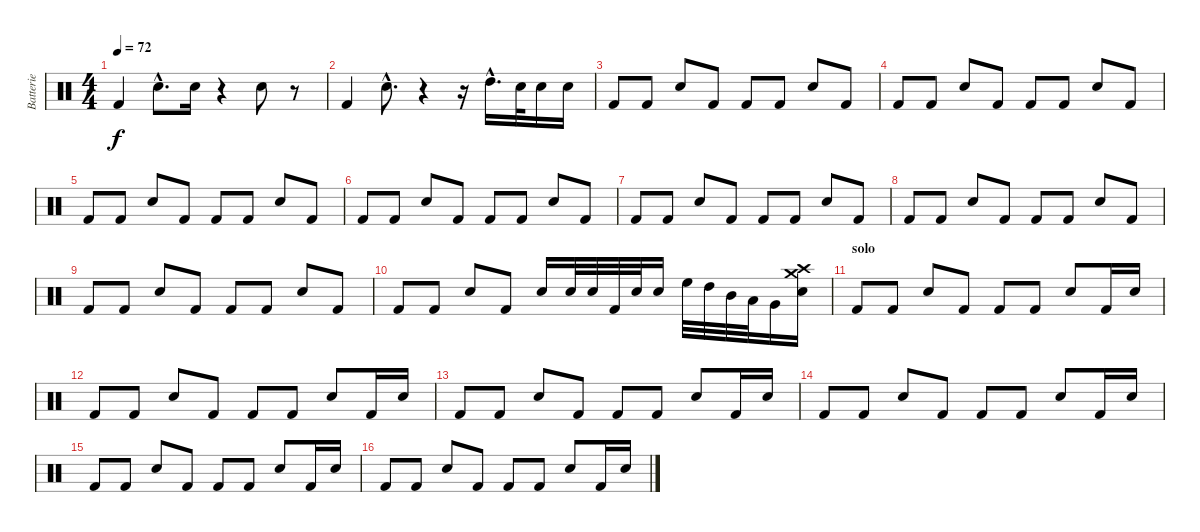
\track ("Batterie" "Batterie") {instrument percussion}
\staff {score}
\articulation defaults
\ts (4 4)
\tempo 72
\clef neutral
\ks c "Kick (hit) 2".4{dy f} "Electric Snare (hit)"{hac}.8{d} "Electric Snare (hit)".16
r.4 "Electric Snare (hit)".8 r.8 |
"Kick (hit) 2".4 "Electric Snare (hit)"{hac}.8{d} r.4 r.16 "High Tom (hit)"{hac}.16{d} "Electric Snare (hit)".32 "Electric Snare (hit)".16 "Electric Snare (hit)".16 |
"Kick (hit) 2".8 "Kick (hit) 2".8 "Electric Snare (hit)".8 "Kick (hit) 2".8 "Kick (hit) 2".8 "Kick (hit) 2".8 "Electric Snare (hit)".8 "Kick (hit) 2".8 |
"Kick (hit) 2".8 "Kick (hit) 2".8 "Electric Snare (hit)".8 "Kick (hit) 2".8 "Kick (hit) 2".8 "Kick (hit) 2".8 "Electric Snare (hit)".8 "Kick (hit) 2".8 |
"Kick (hit) 2".8 "Kick (hit) 2".8 "Electric Snare (hit)".8 "Kick (hit) 2".8 "Kick (hit) 2".8 "Kick (hit) 2".8 "Electric Snare (hit)".8 "Kick (hit) 2".8 |
"Kick (hit) 2".8 "Kick (hit) 2".8 "Electric Snare (hit)".8 "Kick (hit) 2".8 "Kick (hit) 2".8 "Kick (hit) 2".8 "Electric Snare (hit)".8 "Kick (hit) 2".8 |
"Kick (hit) 2".8 "Kick (hit) 2".8 "Electric Snare (hit)".8 "Kick (hit) 2".8 "Kick (hit) 2".8 "Kick (hit) 2".8 "Electric Snare (hit)".8 "Kick (hit) 2".8 |
"Kick (hit) 2".8 "Kick (hit) 2".8 "Electric Snare (hit)".8 "Kick (hit) 2".8 "Kick (hit) 2".8 "Kick (hit) 2".8 "Electric Snare (hit)".8 "Kick (hit) 2".8 |
"Kick (hit) 2".8 "Kick (hit) 2".8 "Electric Snare (hit)".8 "Kick (hit) 2".8 "Kick (hit) 2".8 "Kick (hit) 2".8 "Electric Snare (hit)".8 "Kick (hit) 2".8 |
"Kick (hit) 2".8 "Kick (hit) 2".8 "Electric Snare (hit)".8 "Kick (hit) 2".8 "Electric Snare (hit)".16 "Electric Snare (hit)".32 "Electric Snare (hit)".32 "Kick (hit) 2".32 "Electric Snare (hit)".32 "Electric Snare (hit)".16 "High Floor Tom (hit)".32 "High Tom (hit)".32 "Mid Tom (hit)".32 "Low Tom (hit)".32 "Very Low Tom (hit)".16 ("Crash medium (hit)" "Crash high (hit)" "Electric Snare (hit)").16 |
\section ("" "solo")
"Kick (hit) 2".8 "Kick (hit) 2".8 "Electric Snare (hit)".8 "Kick (hit) 2".8 "Kick (hit) 2".8 "Kick (hit) 2".8 "Electric Snare (hit)".8 "Kick (hit) 2".16 "Electric Snare (hit)".16 |
"Kick (hit) 2".8 "Kick (hit) 2".8 "Electric Snare (hit)".8 "Kick (hit) 2".8 "Kick (hit) 2".8 "Kick (hit) 2".8 "Electric Snare (hit)".8 "Kick (hit) 2".16 "Electric Snare (hit)".16 |
"Kick (hit) 2".8 "Kick (hit) 2".8 "Electric Snare (hit)".8 "Kick (hit) 2".8 "Kick (hit) 2".8 "Kick (hit) 2".8 "Electric Snare (hit)".8 "Kick (hit) 2".16 "Electric Snare (hit)".16 |
"Kick (hit) 2".8 "Kick (hit) 2".8 "Electric Snare (hit)".8 "Kick (hit) 2".8 "Kick (hit) 2".8 "Kick (hit) 2".8 "Electric Snare (hit)".8 "Kick (hit) 2".16 "Electric Snare (hit)".16 |
"Kick (hit) 2".8 "Kick (hit) 2".8 "Electric Snare (hit)".8 "Kick (hit) 2".8 "Kick (hit) 2".8 "Kick (hit) 2".8 "Electric Snare (hit)".8 "Kick (hit) 2".16 "Electric Snare (hit)".16 |
"Kick (hit) 2".8 "Kick (hit) 2".8 "Electric Snare (hit)".8 "Kick (hit) 2".8 "Kick (hit) 2".8 "Kick (hit) 2".8 "Electric Snare (hit)".8 "Kick (hit) 2".16 "Electric Snare (hit)".16
